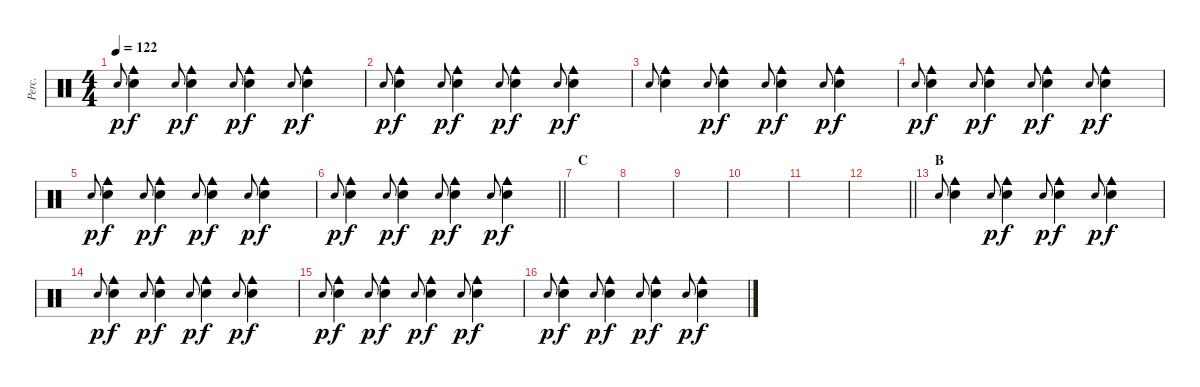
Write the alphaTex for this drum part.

\track ("Perc." "Perc.") {instrument percussion}
\staff {score}
\articulation defaults
\ts (4 4)
\tempo 122
\clef neutral
\ks c "Hand Clap (hit)".8{gr onbeat dy p}
("Hand Clap (hit)" "Cowbell medium (hit)").4{dy f} "Hand Clap (hit)".8{gr onbeat dy p} ("Hand Clap (hit)" "Cowbell medium (hit)").4{dy f} "Hand Clap (hit)".8{gr onbeat dy p} ("Hand Clap (hit)" "Cowbell medium (hit)").4{dy f} "Hand Clap (hit)".8{gr onbeat dy p} ("Hand Clap (hit)" "Cowbell medium (hit)").4{dy f} |
"Hand Clap (hit)".8{gr onbeat dy p} ("Hand Clap (hit)" "Cowbell medium (hit)").4{dy f} "Hand Clap (hit)".8{gr onbeat dy p} ("Hand Clap (hit)" "Cowbell medium (hit)").4{dy f} "Hand Clap (hit)".8{gr onbeat dy p} ("Hand Clap (hit)" "Cowbell medium (hit)").4{dy f} "Hand Clap (hit)".8{gr onbeat dy p} ("Hand Clap (hit)" "Cowbell medium (hit)").4{dy f} |
"Hand Clap (hit)".8{gr onbeat} ("Hand Clap (hit)" "Cowbell medium (hit)").4 "Hand Clap (hit)".8{gr onbeat dy p} ("Hand Clap (hit)" "Cowbell medium (hit)").4{dy f} "Hand Clap (hit)".8{gr onbeat dy p} ("Hand Clap (hit)" "Cowbell medium (hit)").4{dy f} "Hand Clap (hit)".8{gr onbeat dy p} ("Hand Clap (hit)" "Cowbell medium (hit)").4{dy f} |
"Hand Clap (hit)".8{gr onbeat dy p} ("Hand Clap (hit)" "Cowbell medium (hit)").4{dy f} "Hand Clap (hit)".8{gr onbeat dy p} ("Hand Clap (hit)" "Cowbell medium (hit)").4{dy f} "Hand Clap (hit)".8{gr onbeat dy p} ("Hand Clap (hit)" "Cowbell medium (hit)").4{dy f} "Hand Clap (hit)".8{gr onbeat dy p} ("Hand Clap (hit)" "Cowbell medium (hit)").4{dy f} |
"Hand Clap (hit)".8{gr onbeat dy p} ("Hand Clap (hit)" "Cowbell medium (hit)").4{dy f} "Hand Clap (hit)".8{gr onbeat dy p} ("Hand Clap (hit)" "Cowbell medium (hit)").4{dy f} "Hand Clap (hit)".8{gr onbeat dy p} ("Hand Clap (hit)" "Cowbell medium (hit)").4{dy f} "Hand Clap (hit)".8{gr onbeat dy p} ("Hand Clap (hit)" "Cowbell medium (hit)").4{dy f} |
\barLineRight lightlight "Hand Clap (hit)".8{gr onbeat dy p}
("Hand Clap (hit)" "Cowbell medium (hit)").4{dy f} "Hand Clap (hit)".8{gr onbeat dy p} ("Hand Clap (hit)" "Cowbell medium (hit)").4{dy f} "Hand Clap (hit)".8{gr onbeat dy p} ("Hand Clap (hit)" "Cowbell medium (hit)").4{dy f} "Hand Clap (hit)".8{gr onbeat dy p} ("Hand Clap (hit)" "Cowbell medium (hit)").4{dy f} |
\section ("" "C")
|
|
|
|
|
\barLineRight lightlight
|
\section ("" "B")
"Hand Clap (hit)".8{gr onbeat} ("Hand Clap (hit)" "Cowbell medium (hit)").4 "Hand Clap (hit)".8{gr onbeat dy p} ("Hand Clap (hit)" "Cowbell medium (hit)").4{dy f} "Hand Clap (hit)".8{gr onbeat dy p} ("Hand Clap (hit)" "Cowbell medium (hit)").4{dy f} "Hand Clap (hit)".8{gr onbeat dy p} ("Hand Clap (hit)" "Cowbell medium (hit)").4{dy f} |
"Hand Clap (hit)".8{gr onbeat dy p} ("Hand Clap (hit)" "Cowbell medium (hit)").4{dy f} "Hand Clap (hit)".8{gr onbeat dy p} ("Hand Clap (hit)" "Cowbell medium (hit)").4{dy f} "Hand Clap (hit)".8{gr onbeat dy p} ("Hand Clap (hit)" "Cowbell medium (hit)").4{dy f} "Hand Clap (hit)".8{gr onbeat dy p} ("Hand Clap (hit)" "Cowbell medium (hit)").4{dy f} |
"Hand Clap (hit)".8{gr onbeat dy p} ("Hand Clap (hit)" "Cowbell medium (hit)").4{dy f} "Hand Clap (hit)".8{gr onbeat dy p} ("Hand Clap (hit)" "Cowbell medium (hit)").4{dy f} "Hand Clap (hit)".8{gr onbeat dy p} ("Hand Clap (hit)" "Cowbell medium (hit)").4{dy f} "Hand Clap (hit)".8{gr onbeat dy p} ("Hand Clap (hit)" "Cowbell medium (hit)").4{dy f} |
"Hand Clap (hit)".8{gr onbeat dy p} ("Hand Clap (hit)" "Cowbell medium (hit)").4{dy f} "Hand Clap (hit)".8{gr onbeat dy p} ("Hand Clap (hit)" "Cowbell medium (hit)").4{dy f} "Hand Clap (hit)".8{gr onbeat dy p} ("Hand Clap (hit)" "Cowbell medium (hit)").4{dy f} "Hand Clap (hit)".8{gr onbeat dy p} ("Hand Clap (hit)" "Cowbell medium (hit)").4{dy f}
